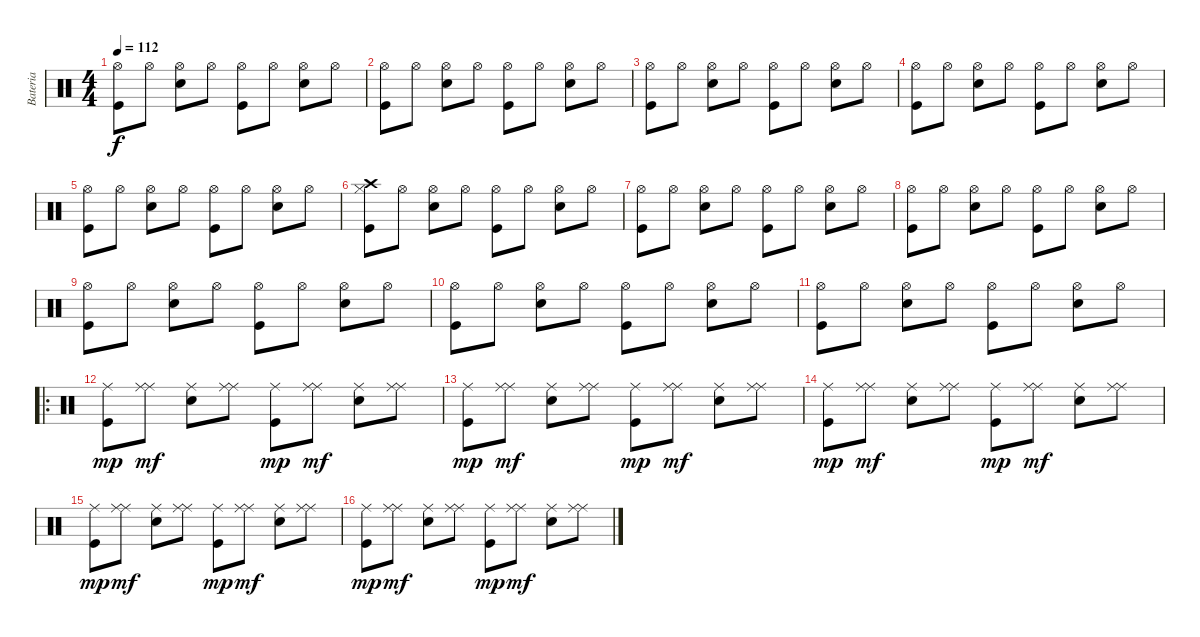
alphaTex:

\track ("Bateria" "Bateria") {instrument percussion}
\staff {score}
\articulation defaults
\ts (4 4)
\tempo 112
\clef neutral
\ks c
("Hi-Hat (open)" "Kick (hit)").8{dy f} "Hi-Hat (open)".8 ("Hi-Hat (open)" "Snare (hit) 2").8 "Hi-Hat (open)".8 ("Hi-Hat (open)" "Kick (hit)").8 "Hi-Hat (open)".8 ("Hi-Hat (open)" "Snare (hit) 2").8 "Hi-Hat (open)".8 |
("Hi-Hat (open)" "Kick (hit)").8 "Hi-Hat (open)".8 ("Hi-Hat (open)" "Snare (hit) 2").8 "Hi-Hat (open)".8 ("Hi-Hat (open)" "Kick (hit)").8 "Hi-Hat (open)".8 ("Hi-Hat (open)" "Snare (hit) 2").8 "Hi-Hat (open)".8 |
("Hi-Hat (open)" "Kick (hit)").8 "Hi-Hat (open)".8 ("Hi-Hat (open)" "Snare (hit) 2").8 "Hi-Hat (open)".8 ("Hi-Hat (open)" "Kick (hit)").8 "Hi-Hat (open)".8 ("Hi-Hat (open)" "Snare (hit) 2").8 "Hi-Hat (open)".8 |
("Hi-Hat (open)" "Kick (hit)").8 "Hi-Hat (open)".8 ("Hi-Hat (open)" "Snare (hit) 2").8 "Hi-Hat (open)".8 ("Hi-Hat (open)" "Kick (hit)").8 "Hi-Hat (open)".8 ("Hi-Hat (open)" "Snare (hit) 2").8 "Hi-Hat (open)".8 |
("Hi-Hat (open)" "Kick (hit)").8 "Hi-Hat (open)".8 ("Hi-Hat (open)" "Snare (hit) 2").8 "Hi-Hat (open)".8 ("Hi-Hat (open)" "Kick (hit)").8 "Hi-Hat (open)".8 ("Hi-Hat (open)" "Snare (hit) 2").8 "Hi-Hat (open)".8 |
("Crash high (hit)" "Kick (hit)" "Hi-Hat (closed)").8 "Hi-Hat (open)".8 ("Hi-Hat (open)" "Snare (hit) 2").8 "Hi-Hat (open)".8 ("Hi-Hat (open)" "Kick (hit)").8 "Hi-Hat (open)".8 ("Hi-Hat (open)" "Snare (hit) 2").8 "Hi-Hat (open)".8 |
("Hi-Hat (open)" "Kick (hit)").8 "Hi-Hat (open)".8 ("Hi-Hat (open)" "Snare (hit) 2").8 "Hi-Hat (open)".8 ("Hi-Hat (open)" "Kick (hit)").8 "Hi-Hat (open)".8 ("Hi-Hat (open)" "Snare (hit) 2").8 "Hi-Hat (open)".8 |
("Hi-Hat (open)" "Kick (hit)").8 "Hi-Hat (open)".8 ("Hi-Hat (open)" "Snare (hit) 2").8 "Hi-Hat (open)".8 ("Hi-Hat (open)" "Kick (hit)").8 "Hi-Hat (open)".8 ("Hi-Hat (open)" "Snare (hit) 2").8 "Hi-Hat (open)".8 |
("Hi-Hat (open)" "Kick (hit)").8 "Hi-Hat (open)".8 ("Hi-Hat (open)" "Snare (hit) 2").8 "Hi-Hat (open)".8 ("Hi-Hat (open)" "Kick (hit)").8 "Hi-Hat (open)".8 ("Hi-Hat (open)" "Snare (hit) 2").8 "Hi-Hat (open)".8 |
("Hi-Hat (open)" "Kick (hit)").8 "Hi-Hat (open)".8 ("Hi-Hat (open)" "Snare (hit) 2").8 "Hi-Hat (open)".8 ("Hi-Hat (open)" "Kick (hit)").8 "Hi-Hat (open)".8 ("Hi-Hat (open)" "Snare (hit) 2").8 "Hi-Hat (open)".8 |
("Hi-Hat (open)" "Kick (hit)").8 "Hi-Hat (open)".8 ("Hi-Hat (open)" "Snare (hit) 2").8 "Hi-Hat (open)".8 ("Hi-Hat (open)" "Kick (hit)").8 "Hi-Hat (open)".8 ("Hi-Hat (open)" "Snare (hit) 2").8 "Hi-Hat (open)".8 |
\ro
("Ride (middle)" "Kick (hit)").8{dy mp} ("Ride (middle)" "Ride (middle)").8{dy mf} ("Ride (middle)" "Snare (hit) 2").8 ("Ride (middle)" "Ride (middle)").8 ("Ride (middle)" "Kick (hit)").8{dy mp} ("Ride (middle)" "Ride (middle)").8{dy mf} ("Ride (middle)" "Snare (hit) 2").8 ("Ride (middle)" "Ride (middle)").8 |
("Ride (middle)" "Kick (hit)").8{dy mp} ("Ride (middle)" "Ride (middle)").8{dy mf} ("Ride (middle)" "Snare (hit) 2").8 ("Ride (middle)" "Ride (middle)").8 ("Ride (middle)" "Kick (hit)").8{dy mp} ("Ride (middle)" "Ride (middle)").8{dy mf} ("Ride (middle)" "Snare (hit) 2").8 ("Ride (middle)" "Ride (middle)").8 |
("Ride (middle)" "Kick (hit)").8{dy mp} ("Ride (middle)" "Ride (middle)").8{dy mf} ("Ride (middle)" "Snare (hit) 2").8 ("Ride (middle)" "Ride (middle)").8 ("Ride (middle)" "Kick (hit)").8{dy mp} ("Ride (middle)" "Ride (middle)").8{dy mf} ("Ride (middle)" "Snare (hit) 2").8 ("Ride (middle)" "Ride (middle)").8 |
("Ride (middle)" "Kick (hit)").8{dy mp} ("Ride (middle)" "Ride (middle)").8{dy mf} ("Ride (middle)" "Snare (hit) 2").8 ("Ride (middle)" "Ride (middle)").8 ("Ride (middle)" "Kick (hit)").8{dy mp} ("Ride (middle)" "Ride (middle)").8{dy mf} ("Ride (middle)" "Snare (hit) 2").8 ("Ride (middle)" "Ride (middle)").8 |
("Ride (middle)" "Kick (hit)").8{dy mp} ("Ride (middle)" "Ride (middle)").8{dy mf} ("Ride (middle)" "Snare (hit) 2").8 ("Ride (middle)" "Ride (middle)").8 ("Ride (middle)" "Kick (hit)").8{dy mp} ("Ride (middle)" "Ride (middle)").8{dy mf} ("Ride (middle)" "Snare (hit) 2").8 ("Ride (middle)" "Ride (middle)").8
